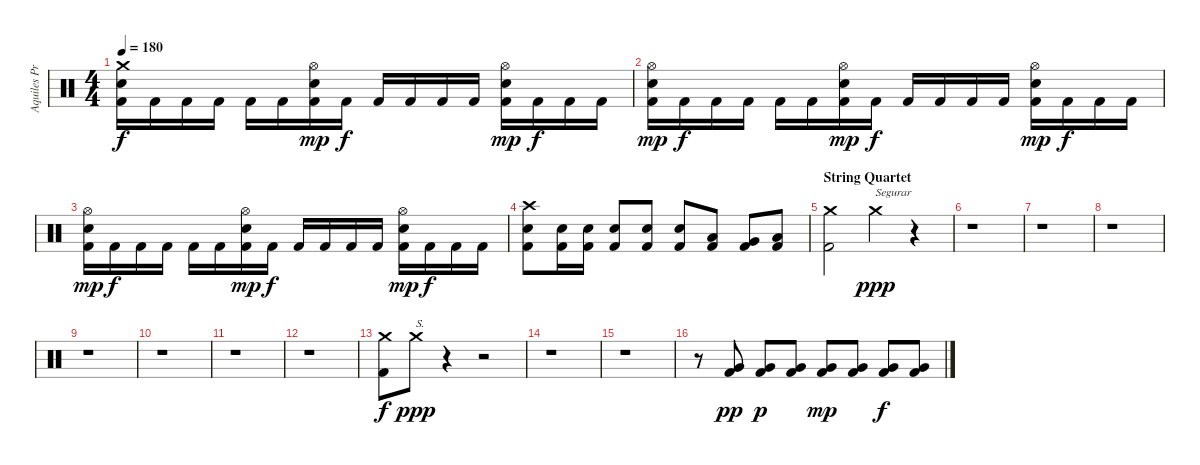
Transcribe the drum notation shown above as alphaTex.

\track ("Aquiles Priester" "Aquiles Pr") {instrument percussion}
\staff {score}
\articulation defaults
\ts (4 4)
\tempo 180
\clef neutral
\ks c
("Crash medium (hit)" "Snare (hit) 2" "Kick (hit) 2").16{dy f} "Kick (hit) 2".16 "Kick (hit) 2".16 "Kick (hit) 2".16 "Kick (hit) 2".16 "Kick (hit) 2".16 ("Hi-Hat (open)" "Snare (hit) 2" "Kick (hit) 2").16{dy mp} "Kick (hit) 2".16{dy f} "Kick (hit) 2".16 "Kick (hit) 2".16 "Kick (hit) 2".16 "Kick (hit) 2".16 ("Hi-Hat (open)" "Snare (hit) 2" "Kick (hit) 2").16{dy mp} "Kick (hit) 2".16{dy f} "Kick (hit) 2".16 "Kick (hit) 2".16 |
("Hi-Hat (open)" "Snare (hit) 2" "Kick (hit) 2").16{dy mp} "Kick (hit) 2".16{dy f} "Kick (hit) 2".16 "Kick (hit) 2".16 "Kick (hit) 2".16 "Kick (hit) 2".16 ("Hi-Hat (open)" "Snare (hit) 2" "Kick (hit) 2").16{dy mp} "Kick (hit) 2".16{dy f} "Kick (hit) 2".16 "Kick (hit) 2".16 "Kick (hit) 2".16 "Kick (hit) 2".16 ("Hi-Hat (open)" "Snare (hit) 2" "Kick (hit) 2").16{dy mp} "Kick (hit) 2".16{dy f} "Kick (hit) 2".16 "Kick (hit) 2".16 |
("Hi-Hat (open)" "Snare (hit) 2" "Kick (hit) 2").16{dy mp} "Kick (hit) 2".16{dy f} "Kick (hit) 2".16 "Kick (hit) 2".16 "Kick (hit) 2".16 "Kick (hit) 2".16 ("Hi-Hat (open)" "Snare (hit) 2" "Kick (hit) 2").16{dy mp} "Kick (hit) 2".16{dy f} "Kick (hit) 2".16 "Kick (hit) 2".16 "Kick (hit) 2".16 "Kick (hit) 2".16 ("Hi-Hat (open)" "Snare (hit) 2" "Kick (hit) 2").16{dy mp} "Kick (hit) 2".16{dy f} "Kick (hit) 2".16 "Kick (hit) 2".16 |
("Crash high (hit)" "Snare (hit) 2" "Kick (hit) 2").8 ("Snare (hit) 2" "Kick (hit) 2").16 ("Snare (hit) 2" "Kick (hit) 2").16 ("Snare (hit) 2" "Kick (hit) 2").8 ("Snare (hit) 2" "Kick (hit) 2").8 ("Snare (hit) 2" "Kick (hit) 2").8 ("Low Tom (hit)" "Kick (hit) 2").8 ("Very Low Tom (hit)" "Kick (hit) 2").8 ("Low Floor Tom (hit)" "Kick (hit) 2").8 |
\section ("" "String Quartet")
("Crash medium (hit)" "Kick (hit) 2").2 "Crash medium (hit)".4{txt "Segurar" dy ppp} r.4 |
r.1 |
r.1 |
r.1 |
r.1 |
r.1 |
r.1 |
r.1 |
("Crash medium (hit)" "Kick (hit) 2").8{dy f} "Crash medium (hit)".8{txt "S." dy ppp} r.4 r.2 |
r.1 |
r.1 |
r.8 ("Very Low Tom (hit)" "Kick (hit) 2").8{dy pp} ("Very Low Tom (hit)" "Kick (hit) 2").8{dy p} ("Very Low Tom (hit)" "Kick (hit) 2").8 ("Very Low Tom (hit)" "Kick (hit) 2").8{dy mp} ("Very Low Tom (hit)" "Kick (hit) 2").8 ("Very Low Tom (hit)" "Kick (hit) 2").8{dy f} ("Very Low Tom (hit)" "Kick (hit) 2").8
